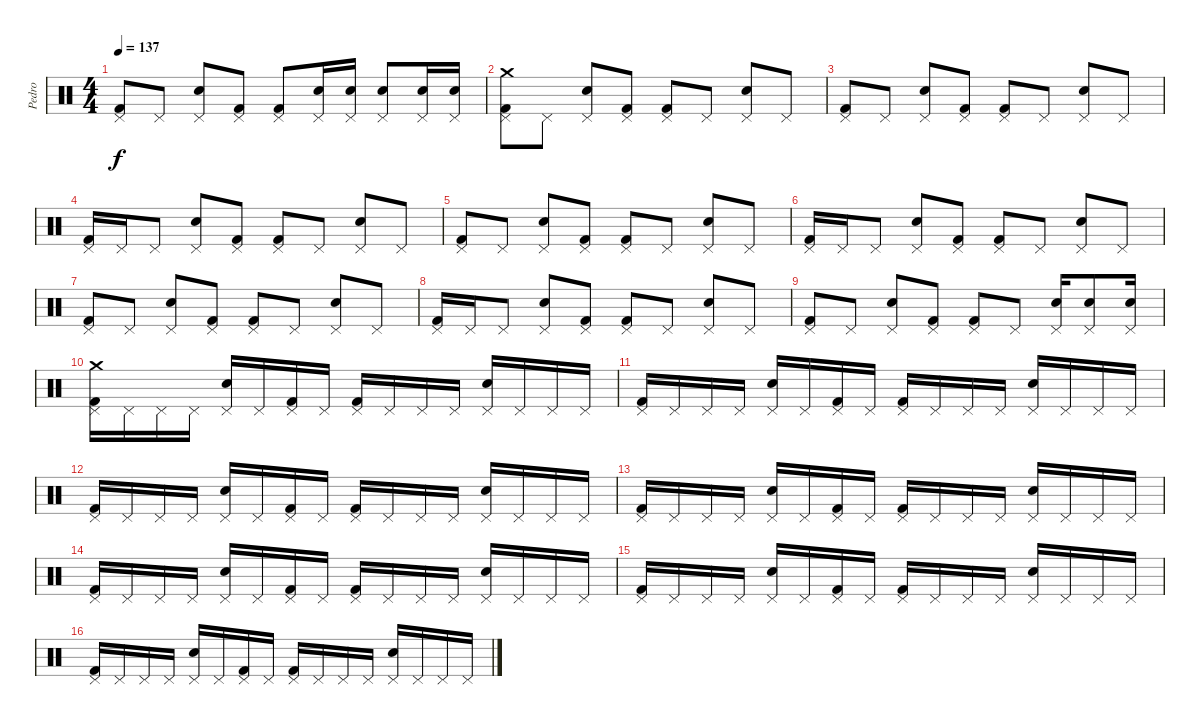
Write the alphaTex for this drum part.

\track ("Pedro" "Pedro") {instrument percussion}
\staff {score}
\articulation defaults
\ts (4 4)
\tempo 137
\clef neutral
\ks c
("Kick (hit) 2" "Pedal Hi-Hat (hit)").8{dy f} "Pedal Hi-Hat (hit)".8 ("Snare (hit) 2" "Pedal Hi-Hat (hit)").8 ("Kick (hit) 2" "Pedal Hi-Hat (hit)").8 ("Pedal Hi-Hat (hit)" "Kick (hit) 2").8 ("Pedal Hi-Hat (hit)" "Snare (hit) 2").16 ("Pedal Hi-Hat (hit)" "Snare (hit) 2").16 ("Pedal Hi-Hat (hit)" "Snare (hit) 2").8 ("Pedal Hi-Hat (hit)" "Snare (hit) 2").16 ("Pedal Hi-Hat (hit)" "Snare (hit) 2").16 |
("Crash medium (hit)" "Pedal Hi-Hat (hit)" "Kick (hit) 2").8 "Pedal Hi-Hat (hit)".8 ("Pedal Hi-Hat (hit)" "Snare (hit) 2").8 ("Pedal Hi-Hat (hit)" "Kick (hit) 2").8 ("Pedal Hi-Hat (hit)" "Kick (hit) 2").8 "Pedal Hi-Hat (hit)".8 ("Pedal Hi-Hat (hit)" "Snare (hit) 2").8 "Pedal Hi-Hat (hit)".8 |
("Pedal Hi-Hat (hit)" "Kick (hit) 2").8 "Pedal Hi-Hat (hit)".8 ("Pedal Hi-Hat (hit)" "Snare (hit) 2").8 ("Pedal Hi-Hat (hit)" "Kick (hit) 2").8 ("Pedal Hi-Hat (hit)" "Kick (hit) 2").8 "Pedal Hi-Hat (hit)".8 ("Pedal Hi-Hat (hit)" "Snare (hit) 2").8 "Pedal Hi-Hat (hit)".8 |
("Pedal Hi-Hat (hit)" "Kick (hit) 2").16 "Pedal Hi-Hat (hit)".16 "Pedal Hi-Hat (hit)".8 ("Pedal Hi-Hat (hit)" "Snare (hit) 2").8 ("Pedal Hi-Hat (hit)" "Kick (hit) 2").8 ("Pedal Hi-Hat (hit)" "Kick (hit) 2").8 "Pedal Hi-Hat (hit)".8 ("Pedal Hi-Hat (hit)" "Snare (hit) 2").8 "Pedal Hi-Hat (hit)".8 |
("Kick (hit) 2" "Pedal Hi-Hat (hit)").8 "Pedal Hi-Hat (hit)".8 ("Snare (hit) 2" "Pedal Hi-Hat (hit)").8 ("Kick (hit) 2" "Pedal Hi-Hat (hit)").8 ("Kick (hit) 2" "Pedal Hi-Hat (hit)").8 "Pedal Hi-Hat (hit)".8 ("Snare (hit) 2" "Pedal Hi-Hat (hit)").8 "Pedal Hi-Hat (hit)".8 |
("Pedal Hi-Hat (hit)" "Kick (hit) 2").16 "Pedal Hi-Hat (hit)".16 "Pedal Hi-Hat (hit)".8 ("Pedal Hi-Hat (hit)" "Snare (hit) 2").8 ("Pedal Hi-Hat (hit)" "Kick (hit) 2").8 ("Pedal Hi-Hat (hit)" "Kick (hit) 2").8 "Pedal Hi-Hat (hit)".8 ("Pedal Hi-Hat (hit)" "Snare (hit) 2").8 "Pedal Hi-Hat (hit)".8 |
("Pedal Hi-Hat (hit)" "Kick (hit) 2").8 "Pedal Hi-Hat (hit)".8 ("Pedal Hi-Hat (hit)" "Snare (hit) 2").8 ("Pedal Hi-Hat (hit)" "Kick (hit) 2").8 ("Pedal Hi-Hat (hit)" "Kick (hit) 2").8 "Pedal Hi-Hat (hit)".8 ("Pedal Hi-Hat (hit)" "Snare (hit) 2").8 "Pedal Hi-Hat (hit)".8 |
("Pedal Hi-Hat (hit)" "Kick (hit) 2").16 "Pedal Hi-Hat (hit)".16 "Pedal Hi-Hat (hit)".8 ("Pedal Hi-Hat (hit)" "Snare (hit) 2").8 ("Pedal Hi-Hat (hit)" "Kick (hit) 2").8 ("Pedal Hi-Hat (hit)" "Kick (hit) 2").8 "Pedal Hi-Hat (hit)".8 ("Pedal Hi-Hat (hit)" "Snare (hit) 2").8 "Pedal Hi-Hat (hit)".8 |
("Kick (hit) 2" "Pedal Hi-Hat (hit)").8 "Pedal Hi-Hat (hit)".8 ("Snare (hit) 2" "Pedal Hi-Hat (hit)").8 ("Kick (hit) 2" "Pedal Hi-Hat (hit)").8 ("Kick (hit) 2" "Pedal Hi-Hat (hit)").8 "Pedal Hi-Hat (hit)".8 ("Pedal Hi-Hat (hit)" "Snare (hit) 2").16 ("Pedal Hi-Hat (hit)" "Snare (hit) 2").8 ("Pedal Hi-Hat (hit)" "Snare (hit) 2").16 |
("Pedal Hi-Hat (hit)" "Crash medium (hit)" "Kick (hit) 2").16 "Pedal Hi-Hat (hit)".16 "Pedal Hi-Hat (hit)".16 "Pedal Hi-Hat (hit)".16 ("Pedal Hi-Hat (hit)" "Snare (hit) 2").16 "Pedal Hi-Hat (hit)".16 ("Pedal Hi-Hat (hit)" "Kick (hit) 2").16 "Pedal Hi-Hat (hit)".16 ("Pedal Hi-Hat (hit)" "Kick (hit) 2").16 "Pedal Hi-Hat (hit)".16 "Pedal Hi-Hat (hit)".16 "Pedal Hi-Hat (hit)".16 ("Pedal Hi-Hat (hit)" "Snare (hit) 2").16 "Pedal Hi-Hat (hit)".16 "Pedal Hi-Hat (hit)".16 "Pedal Hi-Hat (hit)".16 |
("Pedal Hi-Hat (hit)" "Kick (hit) 2").16 "Pedal Hi-Hat (hit)".16 "Pedal Hi-Hat (hit)".16 "Pedal Hi-Hat (hit)".16 ("Pedal Hi-Hat (hit)" "Snare (hit) 2").16 "Pedal Hi-Hat (hit)".16 ("Pedal Hi-Hat (hit)" "Kick (hit) 2").16 "Pedal Hi-Hat (hit)".16 ("Pedal Hi-Hat (hit)" "Kick (hit) 2").16 "Pedal Hi-Hat (hit)".16 "Pedal Hi-Hat (hit)".16 "Pedal Hi-Hat (hit)".16 ("Pedal Hi-Hat (hit)" "Snare (hit) 2").16 "Pedal Hi-Hat (hit)".16 "Pedal Hi-Hat (hit)".16 "Pedal Hi-Hat (hit)".16 |
("Pedal Hi-Hat (hit)" "Kick (hit) 2").16 "Pedal Hi-Hat (hit)".16 "Pedal Hi-Hat (hit)".16 "Pedal Hi-Hat (hit)".16 ("Pedal Hi-Hat (hit)" "Snare (hit) 2").16 "Pedal Hi-Hat (hit)".16 ("Pedal Hi-Hat (hit)" "Kick (hit) 2").16 "Pedal Hi-Hat (hit)".16 ("Pedal Hi-Hat (hit)" "Kick (hit) 2").16 "Pedal Hi-Hat (hit)".16 "Pedal Hi-Hat (hit)".16 "Pedal Hi-Hat (hit)".16 ("Pedal Hi-Hat (hit)" "Snare (hit) 2").16 "Pedal Hi-Hat (hit)".16 "Pedal Hi-Hat (hit)".16 "Pedal Hi-Hat (hit)".16 |
("Pedal Hi-Hat (hit)" "Kick (hit) 2").16 "Pedal Hi-Hat (hit)".16 "Pedal Hi-Hat (hit)".16 "Pedal Hi-Hat (hit)".16 ("Pedal Hi-Hat (hit)" "Snare (hit) 2").16 "Pedal Hi-Hat (hit)".16 ("Pedal Hi-Hat (hit)" "Kick (hit) 2").16 "Pedal Hi-Hat (hit)".16 ("Pedal Hi-Hat (hit)" "Kick (hit) 2").16 "Pedal Hi-Hat (hit)".16 "Pedal Hi-Hat (hit)".16 "Pedal Hi-Hat (hit)".16 ("Pedal Hi-Hat (hit)" "Snare (hit) 2").16 "Pedal Hi-Hat (hit)".16 "Pedal Hi-Hat (hit)".16 "Pedal Hi-Hat (hit)".16 |
("Pedal Hi-Hat (hit)" "Kick (hit) 2").16 "Pedal Hi-Hat (hit)".16 "Pedal Hi-Hat (hit)".16 "Pedal Hi-Hat (hit)".16 ("Pedal Hi-Hat (hit)" "Snare (hit) 2").16 "Pedal Hi-Hat (hit)".16 ("Pedal Hi-Hat (hit)" "Kick (hit) 2").16 "Pedal Hi-Hat (hit)".16 ("Pedal Hi-Hat (hit)" "Kick (hit) 2").16 "Pedal Hi-Hat (hit)".16 "Pedal Hi-Hat (hit)".16 "Pedal Hi-Hat (hit)".16 ("Pedal Hi-Hat (hit)" "Snare (hit) 2").16 "Pedal Hi-Hat (hit)".16 "Pedal Hi-Hat (hit)".16 "Pedal Hi-Hat (hit)".16 |
("Pedal Hi-Hat (hit)" "Kick (hit) 2").16 "Pedal Hi-Hat (hit)".16 "Pedal Hi-Hat (hit)".16 "Pedal Hi-Hat (hit)".16 ("Pedal Hi-Hat (hit)" "Snare (hit) 2").16 "Pedal Hi-Hat (hit)".16 ("Pedal Hi-Hat (hit)" "Kick (hit) 2").16 "Pedal Hi-Hat (hit)".16 ("Pedal Hi-Hat (hit)" "Kick (hit) 2").16 "Pedal Hi-Hat (hit)".16 "Pedal Hi-Hat (hit)".16 "Pedal Hi-Hat (hit)".16 ("Pedal Hi-Hat (hit)" "Snare (hit) 2").16 "Pedal Hi-Hat (hit)".16 "Pedal Hi-Hat (hit)".16 "Pedal Hi-Hat (hit)".16 |
("Pedal Hi-Hat (hit)" "Kick (hit) 2").16 "Pedal Hi-Hat (hit)".16 "Pedal Hi-Hat (hit)".16 "Pedal Hi-Hat (hit)".16 ("Pedal Hi-Hat (hit)" "Snare (hit) 2").16 "Pedal Hi-Hat (hit)".16 ("Pedal Hi-Hat (hit)" "Kick (hit) 2").16 "Pedal Hi-Hat (hit)".16 ("Pedal Hi-Hat (hit)" "Kick (hit) 2").16 "Pedal Hi-Hat (hit)".16 "Pedal Hi-Hat (hit)".16 "Pedal Hi-Hat (hit)".16 ("Pedal Hi-Hat (hit)" "Snare (hit) 2").16 "Pedal Hi-Hat (hit)".16 "Pedal Hi-Hat (hit)".16 "Pedal Hi-Hat (hit)".16
